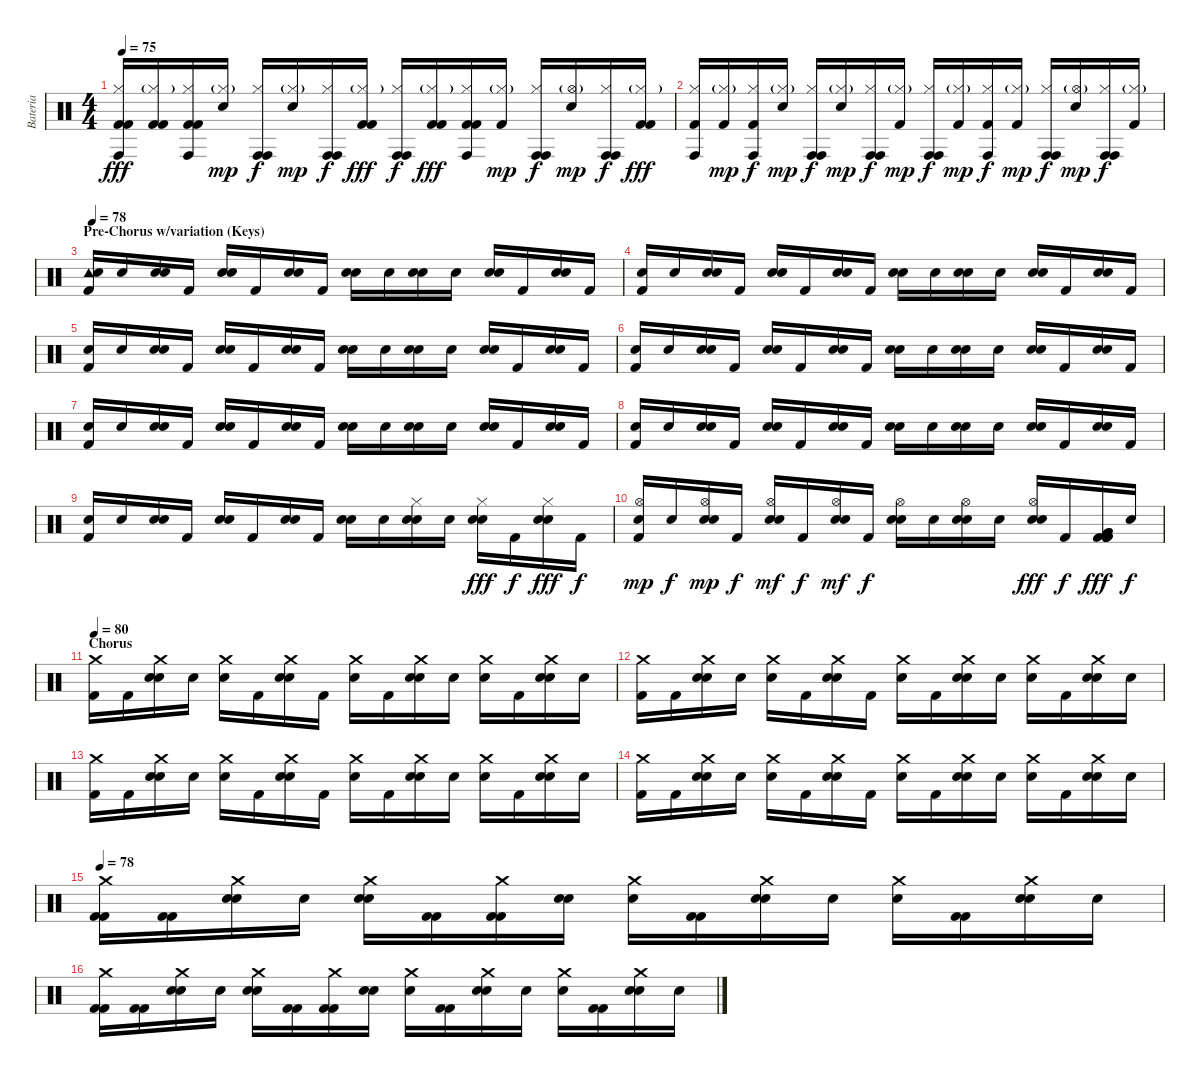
\track ("Bateria" "Bateria") {instrument percussion}
\staff {score}
\articulation defaults
\ts (4 4)
\tempo 75
\clef neutral
\ks c
("Hi-Hat (closed)" "Kick (hit) 2" "Conga high (hit)" "Kick (hit) 2").16{dy fff} ("Hi-Hat (closed)"{g} "Kick (hit) 2" "Kick (hit) 2").16 ("Hi-Hat (closed)" "Kick (hit) 2" "Conga high (hit)" "Kick (hit) 2").16 ("Hi-Hat (closed)"{g} "Snare (hit)"{x}).16{dy mp} ("Hi-Hat (closed)" "Conga high (hit)" "Conga high (hit)"{x}).16{dy f} ("Hi-Hat (closed)"{g} "Snare (hit)"{x}).16{dy mp} ("Hi-Hat (closed)" "Conga high (hit)" "Conga high (hit)"{x}).16{dy f} ("Hi-Hat (closed)"{g} "Kick (hit) 2" "Kick (hit) 2").16{dy fff} ("Hi-Hat (closed)" "Conga high (hit)" "Conga high (hit)"{x}).16{dy f} ("Hi-Hat (closed)"{g} "Kick (hit) 2" "Kick (hit) 2").16{dy fff} ("Hi-Hat (closed)" "Kick (hit) 2" "Conga high (hit)" "Kick (hit) 2").16 ("Hi-Hat (closed)"{g} "Kick (hit) 2"{x}).16{dy mp} ("Hi-Hat (closed)" "Conga high (hit)" "Conga high (hit)"{x}).16{dy f} ("Hi-Hat (open)"{g} "Snare (hit)"{x}).16{dy mp} ("Hi-Hat (closed)" "Conga high (hit)" "Conga high (hit)"{x}).16{dy f} ("Hi-Hat (closed)"{g} "Kick (hit) 2" "Kick (hit) 2").16{dy fff} |
("Hi-Hat (closed)" "Conga high (hit)" "Kick (hit) 2").16 ("Hi-Hat (closed)"{g} "Kick (hit) 2"{x}).16{dy mp} ("Hi-Hat (closed)" "Conga high (hit)" "Kick (hit) 2"{x}).16{dy f} ("Hi-Hat (closed)"{g} "Snare (hit)"{x}).16{dy mp} ("Hi-Hat (closed)" "Conga high (hit)" "Conga high (hit)"{x}).16{dy f} ("Hi-Hat (closed)"{g} "Snare (hit)"{x}).16{dy mp} ("Hi-Hat (closed)" "Conga high (hit)" "Conga high (hit)"{x}).16{dy f} ("Hi-Hat (closed)"{g} "Kick (hit) 2"{x}).16{dy mp} ("Hi-Hat (closed)" "Conga high (hit)" "Conga high (hit)"{x}).16{dy f} ("Hi-Hat (closed)"{g} "Kick (hit) 2"{x}).16{dy mp} ("Hi-Hat (closed)" "Conga high (hit)" "Kick (hit) 2"{x}).16{dy f} ("Hi-Hat (closed)"{g} "Kick (hit) 2"{x}).16{dy mp} ("Hi-Hat (closed)" "Conga high (hit)" "Conga high (hit)"{x}).16{dy f} ("Hi-Hat (open)"{g} "Snare (hit)"{x}).16{dy mp} ("Hi-Hat (closed)" "Conga high (hit)" "Conga high (hit)"{x}).16{dy f} ("Hi-Hat (closed)"{g} "Kick (hit) 2"{x}).16 |
\section ("" "Pre-Chorus w/variation (Keys)")
\tempo 78
("Tambourine (hit)" "Electric Snare (hit)" "Kick (hit) 2").16 "Snare (hit)"{x}.16 ("Electric Snare (hit)" "Snare (hit)"{x}).16 "Kick (hit) 2"{x}.16 ("Electric Snare (hit)" "Snare (hit)"{x}).16 "Kick (hit) 2".16 ("Electric Snare (hit)" "Snare (hit)"{x}).16 "Kick (hit) 2".16 ("Electric Snare (hit)" "Snare (hit)"{x}).16 "Snare (hit)"{x}.16 ("Electric Snare (hit)" "Snare (hit)"{x}).16 "Snare (hit)"{x}.16 ("Electric Snare (hit)" "Snare (hit)"{x}).16 "Kick (hit) 2".16 ("Electric Snare (hit)" "Snare (hit)"{x}).16 "Kick (hit) 2".16 |
("Electric Snare (hit)" "Kick (hit) 2").16 "Snare (hit)"{x}.16 ("Electric Snare (hit)" "Snare (hit)"{x}).16 "Kick (hit) 2"{x}.16 ("Electric Snare (hit)" "Snare (hit)"{x}).16 "Kick (hit) 2".16 ("Electric Snare (hit)" "Snare (hit)"{x}).16 "Kick (hit) 2".16 ("Electric Snare (hit)" "Snare (hit)"{x}).16 "Snare (hit)"{x}.16 ("Electric Snare (hit)" "Snare (hit)"{x}).16 "Snare (hit)"{x}.16 ("Electric Snare (hit)" "Snare (hit)"{x}).16 "Kick (hit) 2".16 ("Electric Snare (hit)" "Snare (hit)"{x}).16 "Kick (hit) 2".16 |
("Electric Snare (hit)" "Kick (hit) 2").16 "Snare (hit)"{x}.16 ("Electric Snare (hit)" "Snare (hit)"{x}).16 "Kick (hit) 2"{x}.16 ("Electric Snare (hit)" "Snare (hit)"{x}).16 "Kick (hit) 2".16 ("Electric Snare (hit)" "Snare (hit)"{x}).16 "Kick (hit) 2".16 ("Electric Snare (hit)" "Snare (hit)"{x}).16 "Snare (hit)"{x}.16 ("Electric Snare (hit)" "Snare (hit)"{x}).16 "Snare (hit)"{x}.16 ("Electric Snare (hit)" "Snare (hit)"{x}).16 "Kick (hit) 2".16 ("Electric Snare (hit)" "Snare (hit)"{x}).16 "Kick (hit) 2".16 |
("Electric Snare (hit)" "Kick (hit) 2").16 "Snare (hit)"{x}.16 ("Electric Snare (hit)" "Snare (hit)"{x}).16 "Kick (hit) 2"{x}.16 ("Electric Snare (hit)" "Snare (hit)"{x}).16 "Kick (hit) 2".16 ("Electric Snare (hit)" "Snare (hit)"{x}).16 "Kick (hit) 2".16 ("Electric Snare (hit)" "Snare (hit)"{x}).16 "Snare (hit)"{x}.16 ("Electric Snare (hit)" "Snare (hit)"{x}).16 "Snare (hit)"{x}.16 ("Electric Snare (hit)" "Snare (hit)"{x}).16 "Kick (hit) 2".16 ("Electric Snare (hit)" "Snare (hit)"{x}).16 "Kick (hit) 2".16 |
("Electric Snare (hit)" "Kick (hit) 2").16 "Snare (hit)"{x}.16 ("Electric Snare (hit)" "Snare (hit)"{x}).16 "Kick (hit) 2"{x}.16 ("Electric Snare (hit)" "Snare (hit)"{x}).16 "Kick (hit) 2".16 ("Electric Snare (hit)" "Snare (hit)"{x}).16 "Kick (hit) 2".16 ("Electric Snare (hit)" "Snare (hit)"{x}).16 "Snare (hit)"{x}.16 ("Electric Snare (hit)" "Snare (hit)"{x}).16 "Snare (hit)"{x}.16 ("Electric Snare (hit)" "Snare (hit)"{x}).16 "Kick (hit) 2".16 ("Electric Snare (hit)" "Snare (hit)"{x}).16 "Kick (hit) 2".16 |
("Electric Snare (hit)" "Kick (hit) 2").16 "Snare (hit)"{x}.16 ("Electric Snare (hit)" "Snare (hit)"{x}).16 "Kick (hit) 2"{x}.16 ("Electric Snare (hit)" "Snare (hit)"{x}).16 "Kick (hit) 2".16 ("Electric Snare (hit)" "Snare (hit)"{x}).16 "Kick (hit) 2".16 ("Electric Snare (hit)" "Snare (hit)"{x}).16 "Snare (hit)"{x}.16 ("Electric Snare (hit)" "Snare (hit)"{x}).16 "Snare (hit)"{x}.16 ("Electric Snare (hit)" "Snare (hit)"{x}).16 "Kick (hit) 2".16 ("Electric Snare (hit)" "Snare (hit)"{x}).16 "Kick (hit) 2".16 |
("Electric Snare (hit)" "Kick (hit) 2").16 "Snare (hit)"{x}.16 ("Electric Snare (hit)" "Snare (hit)"{x}).16 "Kick (hit) 2"{x}.16 ("Electric Snare (hit)" "Snare (hit)"{x}).16 "Kick (hit) 2".16 ("Electric Snare (hit)" "Snare (hit)"{x}).16 "Kick (hit) 2".16 ("Electric Snare (hit)" "Snare (hit)"{x}).16 "Snare (hit)"{x}.16 ("Hi-Hat (closed)" "Electric Snare (hit)" "Snare (hit)"{x}).16 "Snare (hit)"{x}.16 ("Hi-Hat (closed)" "Electric Snare (hit)" "Snare (hit)"{x}).16{dy fff} "Kick (hit) 2".16{dy f} ("Hi-Hat (closed)" "Electric Snare (hit)" "Snare (hit)"{x}).16{dy fff} "Kick (hit) 2".16{dy f} |
("Hi-Hat (open)" "Electric Snare (hit)" "Kick (hit) 2").16{dy mp} "Snare (hit)"{x}.16{dy f} ("Hi-Hat (open)" "Electric Snare (hit)" "Snare (hit)"{x}).16{dy mp} "Kick (hit) 2"{x}.16{dy f} ("Hi-Hat (open)" "Electric Snare (hit)" "Snare (hit)"{x}).16{dy mf} "Kick (hit) 2".16{dy f} ("Hi-Hat (open)" "Electric Snare (hit)" "Snare (hit)"{x}).16{dy mf} "Kick (hit) 2".16{dy f} ("Hi-Hat (open)" "Electric Snare (hit)" "Snare (hit)"{x}).16 "Snare (hit)"{x}.16 ("Hi-Hat (open)" "Electric Snare (hit)" "Snare (hit)"{x}).16 "Snare (hit)"{x}.16 ("Hi-Hat (open)" "Electric Snare (hit)" "Snare (hit)"{x}).16{dy fff} "Kick (hit) 2"{x}.16{dy f} ("Kick (hit) 2" "Very Low Tom (hit)" "Kick (hit) 2" "Very Low Tom (hit)" "Kick (hit) 2" "Kick (hit) 2").16{dy fff} "Snare (hit)"{x}.16{dy f} |
\section ("" "Chorus")
\tempo 80
("Crash medium (hit)" "Kick (hit) 2").16 "Kick (hit) 2".16 ("Crash medium (hit)" "Snare (hit) 2" "Snare (hit)"{x}).16 "Snare (hit)"{x}.16 ("Crash medium (hit)" "Snare (hit)"{x}).16 "Kick (hit) 2".16 ("Crash medium (hit)" "Snare (hit) 2" "Snare (hit)"{x}).16 "Kick (hit) 2".16 ("Crash medium (hit)" "Snare (hit)"{x}).16 "Kick (hit) 2".16 ("Crash medium (hit)" "Snare (hit) 2" "Snare (hit)"{x}).16 "Snare (hit)"{x}.16 ("Crash medium (hit)" "Snare (hit)"{x}).16 "Kick (hit) 2".16 ("Crash medium (hit)" "Snare (hit) 2" "Snare (hit)"{x}).16 "Snare (hit)"{x}.16 |
("Crash medium (hit)" "Kick (hit) 2").16 "Kick (hit) 2".16 ("Crash medium (hit)" "Snare (hit) 2" "Snare (hit)"{x}).16 "Snare (hit)"{x}.16 ("Crash medium (hit)" "Snare (hit)"{x}).16 "Kick (hit) 2".16 ("Crash medium (hit)" "Snare (hit) 2" "Snare (hit)"{x}).16 "Kick (hit) 2".16 ("Crash medium (hit)" "Snare (hit)"{x}).16 "Kick (hit) 2".16 ("Crash medium (hit)" "Snare (hit) 2" "Snare (hit)"{x}).16 "Snare (hit)"{x}.16 ("Crash medium (hit)" "Snare (hit)"{x}).16 "Kick (hit) 2".16 ("Crash medium (hit)" "Snare (hit) 2" "Snare (hit)"{x}).16 "Snare (hit)"{x}.16 |
("Crash medium (hit)" "Kick (hit) 2").16 "Kick (hit) 2".16 ("Crash medium (hit)" "Snare (hit) 2" "Snare (hit)"{x}).16 "Snare (hit)"{x}.16 ("Crash medium (hit)" "Snare (hit)"{x}).16 "Kick (hit) 2".16 ("Crash medium (hit)" "Snare (hit) 2" "Snare (hit)"{x}).16 "Kick (hit) 2".16 ("Crash medium (hit)" "Snare (hit)"{x}).16 "Kick (hit) 2".16 ("Crash medium (hit)" "Snare (hit) 2" "Snare (hit)"{x}).16 "Snare (hit)"{x}.16 ("Crash medium (hit)" "Snare (hit)"{x}).16 "Kick (hit) 2".16 ("Crash medium (hit)" "Snare (hit) 2" "Snare (hit)"{x}).16 "Snare (hit)"{x}.16 |
("Crash medium (hit)" "Kick (hit) 2").16 "Kick (hit) 2".16 ("Crash medium (hit)" "Snare (hit) 2" "Snare (hit)"{x}).16 "Snare (hit)"{x}.16 ("Crash medium (hit)" "Snare (hit)"{x}).16 "Kick (hit) 2".16 ("Crash medium (hit)" "Snare (hit) 2" "Snare (hit)"{x}).16 "Kick (hit) 2".16 ("Crash medium (hit)" "Snare (hit)"{x}).16 "Kick (hit) 2".16 ("Crash medium (hit)" "Snare (hit) 2" "Snare (hit)"{x}).16 "Snare (hit)"{x}.16 ("Crash medium (hit)" "Snare (hit)"{x}).16 "Kick (hit) 2".16 ("Crash medium (hit)" "Snare (hit) 2" "Snare (hit)"{x}).16 "Snare (hit)"{x}.16 |
\tempo 78
("Crash medium (hit)" "Kick (hit) 2" "Kick (hit) 2").16 ("Kick (hit) 2" "Kick (hit) 2").16 ("Crash medium (hit)" "Snare (hit) 2" "Snare (hit)"{x}).16 "Snare (hit)"{x}.16 ("Crash medium (hit)" "Snare (hit) 2" "Snare (hit)"{x}).16 ("Kick (hit) 2" "Kick (hit) 2").16 ("Crash medium (hit)" "Kick (hit) 2" "Kick (hit) 2").16 ("Snare (hit) 2" "Snare (hit)"{x}).16 ("Crash medium (hit)" "Snare (hit)"{x}).16 ("Kick (hit) 2" "Kick (hit) 2").16 ("Crash medium (hit)" "Snare (hit) 2" "Snare (hit)"{x}).16 "Snare (hit)"{x}.16 ("Crash medium (hit)" "Snare (hit)"{x}).16 ("Kick (hit) 2" "Kick (hit) 2").16 ("Crash medium (hit)" "Snare (hit) 2" "Snare (hit)"{x}).16 "Snare (hit)"{x}.16 |
("Crash medium (hit)" "Kick (hit) 2" "Kick (hit) 2").16 ("Kick (hit) 2" "Kick (hit) 2").16 ("Crash medium (hit)" "Snare (hit) 2" "Snare (hit)"{x}).16 "Snare (hit)"{x}.16 ("Crash medium (hit)" "Snare (hit) 2" "Snare (hit)"{x}).16 ("Kick (hit) 2" "Kick (hit) 2").16 ("Crash medium (hit)" "Kick (hit) 2" "Kick (hit) 2").16 ("Snare (hit) 2" "Snare (hit)"{x}).16 ("Crash medium (hit)" "Snare (hit)"{x}).16 ("Kick (hit) 2" "Kick (hit) 2").16 ("Crash medium (hit)" "Snare (hit) 2" "Snare (hit)"{x}).16 "Snare (hit)"{x}.16 ("Crash medium (hit)" "Snare (hit)"{x}).16 ("Kick (hit) 2" "Kick (hit) 2").16 ("Crash medium (hit)" "Snare (hit) 2" "Snare (hit)"{x}).16 "Snare (hit)"{x}.16
